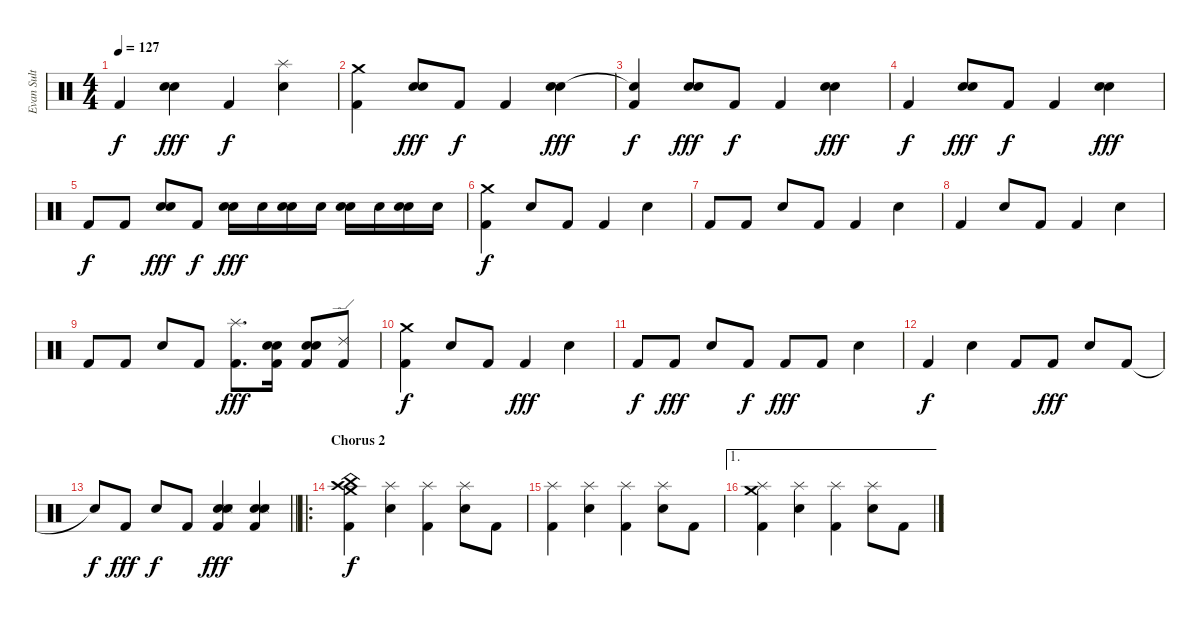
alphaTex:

\track ("Evan Sult" "Evan Sult") {instrument percussion}
\staff {score}
\articulation defaults
\ts (4 4)
\tempo 127
\clef neutral
\ks c "Kick (hit) 2".4{dy f}
("Electric Snare (hit)" "Snare (hit) 2").4{dy fff} "Kick (hit) 2".4{dy f} ("Electric Snare (hit)" "Splash (hit)").4 |
("Crash medium (hit)" "Kick (hit) 2").4 ("Electric Snare (hit)" "Snare (hit) 2").8{dy fff} "Kick (hit) 2".8{dy f} "Kick (hit) 2".4 ("Electric Snare (hit)" "Snare (hit) 2").4{dy fff} |
("Snare (hit)"{t} "Kick (hit) 2").4{dy f} ("Electric Snare (hit)" "Snare (hit) 2").8{dy fff} "Kick (hit) 2".8{dy f} "Kick (hit) 2".4 ("Electric Snare (hit)" "Snare (hit) 2").4{dy fff} |
"Kick (hit) 2".4{dy f} ("Snare (hit) 2" "Electric Snare (hit)").8{dy fff} "Kick (hit) 2".8{dy f} "Kick (hit) 2".4 ("Electric Snare (hit)" "Snare (hit) 2").4{dy fff} |
"Kick (hit) 2".8{dy f} "Kick (hit) 2".8 ("Electric Snare (hit)" "Snare (hit) 2").8{dy fff} "Kick (hit) 2".8{dy f} ("Electric Snare (hit)" "Snare (hit) 2").16{dy fff} "Electric Snare (hit)".16 ("Electric Snare (hit)" "Snare (hit) 2").16 "Electric Snare (hit)".16 ("Electric Snare (hit)" "Snare (hit) 2").16 "Electric Snare (hit)".16 ("Electric Snare (hit)" "Snare (hit) 2").16 "Electric Snare (hit)".16 |
("Crash medium (hit)" "Kick (hit) 2").4{dy f} "Electric Snare (hit)".8 "Kick (hit) 2".8 "Kick (hit) 2".4 "Electric Snare (hit)".4 |
"Kick (hit) 2".8 "Kick (hit) 2".8 "Electric Snare (hit)".8 "Kick (hit) 2".8 "Kick (hit) 2".4 "Electric Snare (hit)".4 |
"Kick (hit) 2".4 "Electric Snare (hit)".8 "Kick (hit) 2".8 "Kick (hit) 2".4 "Electric Snare (hit)".4 |
"Kick (hit) 2".8 "Kick (hit) 2".8 "Electric Snare (hit)".8 "Kick (hit) 2".8 ("Splash (hit)" "Kick (hit) 2").8{d dy fff} ("Electric Snare (hit)" "Kick (hit) 2" "Snare (hit) 2").16 ("Electric Snare (hit)" "Kick (hit) 2" "Snare (hit) 2").8 ("Ride (edge) 2" "Kick (hit) 2").8 |
("Crash medium (hit)" "Kick (hit) 2").4{dy f} "Electric Snare (hit)".8 "Kick (hit) 2".8 "Kick (hit) 2".4{dy fff} "Electric Snare (hit)".4 |
"Kick (hit) 2".8{dy f} "Kick (hit) 2".8{dy fff} "Electric Snare (hit)".8 "Kick (hit) 2".8{dy f} "Kick (hit) 2".8{dy fff} "Kick (hit) 2".8 "Electric Snare (hit)".4 |
"Kick (hit) 2".4{dy f} "Electric Snare (hit)".4 "Kick (hit) 2".8 "Kick (hit) 2".8{dy fff} "Electric Snare (hit)".8 "Kick (hit) 2".8 |
\barLineRight lightlight "Electric Snare (hit)"{t}.8{dy f} "Kick (hit) 2".8{dy fff} "Electric Snare (hit)".8{dy f} "Kick (hit) 2".8
("Electric Snare (hit)" "Kick (hit) 2" "Snare (side stick) 3" "Snare (hit) 2").4{dy fff} ("Electric Snare (hit)" "Kick (hit) 2" "Snare (side stick) 3" "Snare (hit) 2").4 |
\ro
\section ("" "Chorus 2")
("Crash medium (hit)" "Kick (hit) 2" "Crash high (hit)" "China (hit)").4{dy f} ("Electric Snare (hit)" "Splash (hit)").4 ("Kick (hit) 2" "Splash (hit)").4 ("Electric Snare (hit)" "Splash (hit)").8 "Kick (hit) 2".8 |
("Kick (hit) 2" "Splash (hit)").4 ("Electric Snare (hit)" "Splash (hit)").4 ("Kick (hit) 2" "Splash (hit)").4 ("Electric Snare (hit)" "Splash (hit)").8 "Kick (hit) 2".8 |
\ae 1
("Kick (hit) 2" "Splash (hit)" "Crash medium (hit)").4 ("Electric Snare (hit)" "Splash (hit)").4 ("Kick (hit) 2" "Splash (hit)").4 ("Electric Snare (hit)" "Splash (hit)").8 "Kick (hit) 2".8
